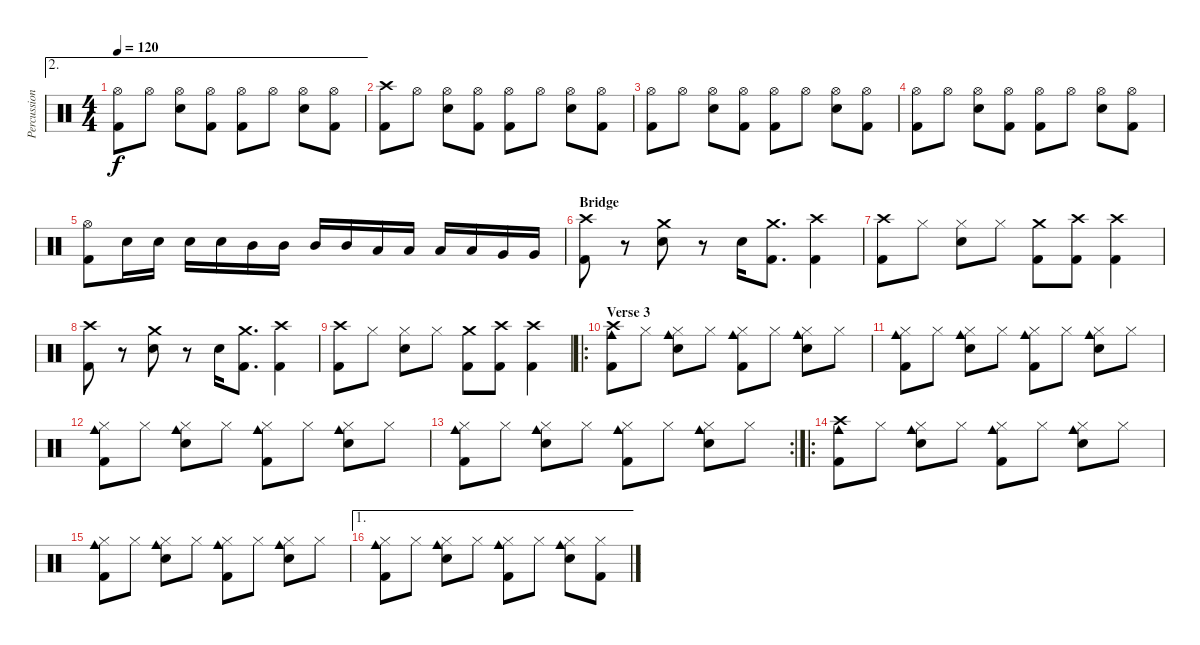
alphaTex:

\track ("Percussion" "Percussion") {instrument percussion}
\staff {score}
\articulation defaults
\ae 2
\ts (4 4)
\tempo 120
\clef neutral
\ks c
("Hi-Hat (open)" "Kick (hit) 2").8{dy f} "Hi-Hat (open)".8 ("Hi-Hat (open)" "Snare (hit) 2").8 ("Hi-Hat (open)" "Kick (hit) 2").8 ("Hi-Hat (open)" "Kick (hit) 2").8 "Hi-Hat (open)".8 ("Hi-Hat (open)" "Snare (hit) 2").8 ("Hi-Hat (open)" "Kick (hit) 2").8 |
("Crash high (hit)" "Kick (hit) 2").8 "Hi-Hat (open)".8 ("Hi-Hat (open)" "Snare (hit) 2").8 ("Hi-Hat (open)" "Kick (hit) 2").8 ("Hi-Hat (open)" "Kick (hit) 2").8 "Hi-Hat (open)".8 ("Hi-Hat (open)" "Snare (hit) 2").8 ("Hi-Hat (open)" "Kick (hit) 2").8 |
("Hi-Hat (open)" "Kick (hit) 2").8 "Hi-Hat (open)".8 ("Hi-Hat (open)" "Snare (hit) 2").8 ("Hi-Hat (open)" "Kick (hit) 2").8 ("Hi-Hat (open)" "Kick (hit) 2").8 "Hi-Hat (open)".8 ("Hi-Hat (open)" "Snare (hit) 2").8 ("Hi-Hat (open)" "Kick (hit) 2").8 |
("Hi-Hat (open)" "Kick (hit) 2").8 "Hi-Hat (open)".8 ("Hi-Hat (open)" "Snare (hit) 2").8 ("Hi-Hat (open)" "Kick (hit) 2").8 ("Hi-Hat (open)" "Kick (hit) 2").8 "Hi-Hat (open)".8 ("Hi-Hat (open)" "Snare (hit) 2").8 ("Hi-Hat (open)" "Kick (hit) 2").8 |
("Hi-Hat (open)" "Kick (hit) 2").8 "Snare (hit) 2".16 "Snare (hit) 2".16 "Snare (hit) 2".16 "Snare (hit) 2".16 "Mid Tom (hit)".16 "Mid Tom (hit)".16 "Mid Tom (hit)".16 "Mid Tom (hit)".16 "Low Tom (hit)".16 "Low Tom (hit)".16 "Low Tom (hit)".16 "Low Tom (hit)".16 "Very Low Tom (hit)".16 "Very Low Tom (hit)".16 |
\section ("" "Bridge")
("Crash high (hit)" "Kick (hit) 2").8 r.8 ("Crash medium (hit)" "Snare (hit) 2").8 r.8 "Snare (hit) 2".16 ("Crash medium (hit)" "Kick (hit) 2").8{d} ("Crash high (hit)" "Kick (hit) 2").4 |
("Crash high (hit)" "Kick (hit) 2").8 "Hi-Hat (closed)".8 ("Hi-Hat (closed)" "Snare (hit) 2").8 "Hi-Hat (closed)".8 ("Crash medium (hit)" "Kick (hit) 2").8 ("Crash high (hit)" "Kick (hit) 2").8 ("Crash high (hit)" "Kick (hit) 2").4 |
("Crash high (hit)" "Kick (hit) 2").8 r.8 ("Crash medium (hit)" "Snare (hit) 2").8 r.8 "Snare (hit) 2".16 ("Crash medium (hit)" "Kick (hit) 2").8{d} ("Crash high (hit)" "Kick (hit) 2").4 |
("Crash high (hit)" "Kick (hit) 2").8 "Hi-Hat (closed)".8 ("Hi-Hat (closed)" "Snare (hit) 2").8 "Hi-Hat (closed)".8 ("Crash medium (hit)" "Kick (hit) 2").8 ("Crash high (hit)" "Kick (hit) 2").8 ("Crash high (hit)" "Kick (hit) 2").4 |
\ro
\section ("" "Verse 3")
("Crash high (hit)" "Cowbell medium (hit)" "Kick (hit) 2").8 "Hi-Hat (closed)".8 ("Hi-Hat (closed)" "Cowbell medium (hit)" "Snare (hit) 2").8 "Hi-Hat (closed)".8 ("Hi-Hat (closed)" "Cowbell medium (hit)" "Kick (hit) 2").8 "Hi-Hat (closed)".8 ("Hi-Hat (closed)" "Cowbell medium (hit)" "Snare (hit) 2").8 "Hi-Hat (closed)".8 |
("Hi-Hat (closed)" "Cowbell medium (hit)" "Kick (hit) 2").8 "Hi-Hat (closed)".8 ("Hi-Hat (closed)" "Cowbell medium (hit)" "Snare (hit) 2").8 "Hi-Hat (closed)".8 ("Hi-Hat (closed)" "Cowbell medium (hit)" "Kick (hit) 2").8 "Hi-Hat (closed)".8 ("Hi-Hat (closed)" "Cowbell medium (hit)" "Snare (hit) 2").8 "Hi-Hat (closed)".8 |
("Hi-Hat (closed)" "Cowbell medium (hit)" "Kick (hit) 2").8 "Hi-Hat (closed)".8 ("Hi-Hat (closed)" "Cowbell medium (hit)" "Snare (hit) 2").8 "Hi-Hat (closed)".8 ("Hi-Hat (closed)" "Cowbell medium (hit)" "Kick (hit) 2").8 "Hi-Hat (closed)".8 ("Hi-Hat (closed)" "Cowbell medium (hit)" "Snare (hit) 2").8 "Hi-Hat (closed)".8 |
\rc 2
("Hi-Hat (closed)" "Cowbell medium (hit)" "Kick (hit) 2").8 "Hi-Hat (closed)".8 ("Hi-Hat (closed)" "Cowbell medium (hit)" "Snare (hit) 2").8 "Hi-Hat (closed)".8 ("Hi-Hat (closed)" "Cowbell medium (hit)" "Kick (hit) 2").8 "Hi-Hat (closed)".8 ("Hi-Hat (closed)" "Cowbell medium (hit)" "Snare (hit) 2").8 "Hi-Hat (closed)".8 |
\ro
("Crash high (hit)" "Cowbell medium (hit)" "Kick (hit) 2").8 "Hi-Hat (closed)".8 ("Hi-Hat (closed)" "Cowbell medium (hit)" "Snare (hit) 2").8 "Hi-Hat (closed)".8 ("Hi-Hat (closed)" "Cowbell medium (hit)" "Kick (hit) 2").8 "Hi-Hat (closed)".8 ("Hi-Hat (closed)" "Cowbell medium (hit)" "Snare (hit) 2").8 "Hi-Hat (closed)".8 |
("Hi-Hat (closed)" "Cowbell medium (hit)" "Kick (hit) 2").8 "Hi-Hat (closed)".8 ("Hi-Hat (closed)" "Cowbell medium (hit)" "Snare (hit) 2").8 "Hi-Hat (closed)".8 ("Hi-Hat (closed)" "Cowbell medium (hit)" "Kick (hit) 2").8 "Hi-Hat (closed)".8 ("Hi-Hat (closed)" "Cowbell medium (hit)" "Snare (hit) 2").8 "Hi-Hat (closed)".8 |
\ae 1
("Hi-Hat (closed)" "Cowbell medium (hit)" "Kick (hit) 2").8 "Hi-Hat (closed)".8 ("Hi-Hat (closed)" "Cowbell medium (hit)" "Snare (hit) 2").8 "Hi-Hat (closed)".8 ("Hi-Hat (closed)" "Cowbell medium (hit)" "Kick (hit) 2").8 "Hi-Hat (closed)".8 ("Hi-Hat (closed)" "Cowbell medium (hit)" "Snare (hit) 2").8 ("Hi-Hat (closed)" "Kick (hit) 2").8
